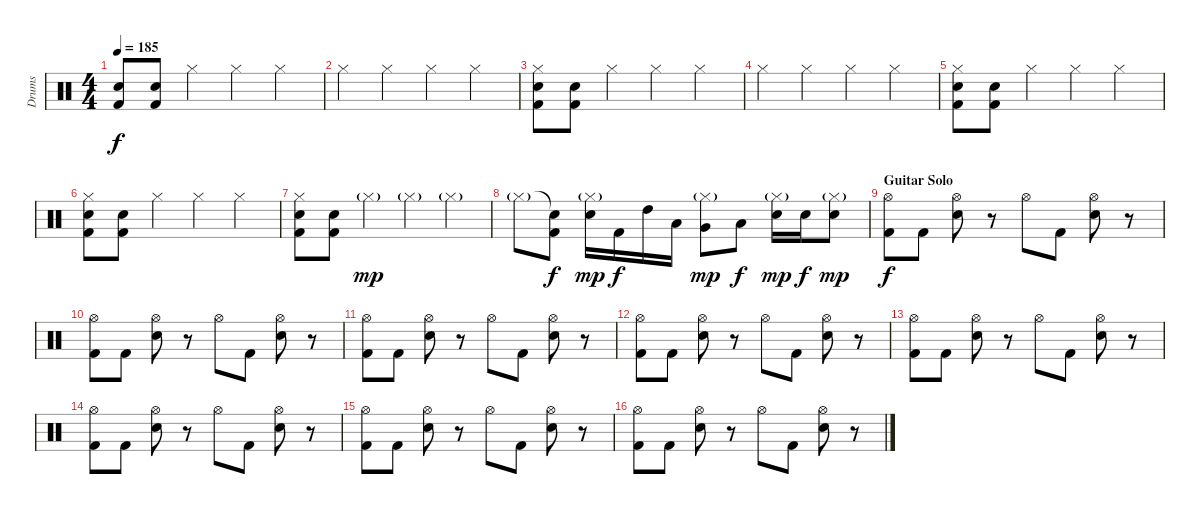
\track ("Drums" "Drums") {instrument percussion}
\staff {score}
\articulation defaults
\ts (4 4)
\tempo 185
\clef neutral
\ks c
("Kick (hit) 2" "Electric Snare (hit)").8{dy f} ("Kick (hit) 2" "Electric Snare (hit)").8 "Hi-Hat (closed)".4 "Hi-Hat (closed)".4 "Hi-Hat (closed)".4 |
"Hi-Hat (closed)".4 "Hi-Hat (closed)".4 "Hi-Hat (closed)".4 "Hi-Hat (closed)".4 |
("Hi-Hat (closed)" "Kick (hit) 2" "Electric Snare (hit)").8 ("Kick (hit) 2" "Electric Snare (hit)").8 "Hi-Hat (closed)".4 "Hi-Hat (closed)".4 "Hi-Hat (closed)".4 |
"Hi-Hat (closed)".4 "Hi-Hat (closed)".4 "Hi-Hat (closed)".4 "Hi-Hat (closed)".4 |
("Hi-Hat (closed)" "Kick (hit) 2" "Electric Snare (hit)").8 ("Kick (hit) 2" "Electric Snare (hit)").8 "Hi-Hat (closed)".4 "Hi-Hat (closed)".4 "Hi-Hat (closed)".4 |
("Hi-Hat (closed)" "Kick (hit) 2" "Electric Snare (hit)").8 ("Kick (hit) 2" "Electric Snare (hit)").8 "Hi-Hat (closed)".4 "Hi-Hat (closed)".4 "Hi-Hat (closed)".4 |
("Hi-Hat (closed)" "Kick (hit) 2" "Electric Snare (hit)").8 ("Kick (hit) 2" "Electric Snare (hit)").8 "Hi-Hat (closed)"{g}.4{dy mp} "Hi-Hat (closed)"{g}.4 "Hi-Hat (closed)"{g}.4 |
"Hi-Hat (closed)"{g}.8 ("Snare (hit)"{t} "Kick (hit) 2").8{dy f} ("Hi-Hat (closed)"{g} "Electric Snare (hit)").16{dy mp} "Kick (hit) 2".16{dy f} "High Tom (hit)".16 "Low Tom (hit)".16 ("Hi-Hat (closed)"{g} "Very Low Tom (hit)").8{dy mp} "Low Floor Tom (hit)".8{dy f} ("Hi-Hat (closed)"{g} "Electric Snare (hit)").16{dy mp} "Electric Snare (hit)".16{dy f} ("Hi-Hat (closed)"{g} "Electric Snare (hit)").8{dy mp} |
\section ("" "Guitar Solo")
("Hi-Hat (open)" "Kick (hit) 2").8{dy f} "Kick (hit) 2".8 ("Hi-Hat (open)" "Electric Snare (hit)").8 r.8 "Hi-Hat (open)".8 "Kick (hit) 2".8 ("Hi-Hat (open)" "Electric Snare (hit)").8 r.8 |
("Hi-Hat (open)" "Kick (hit) 2").8 "Kick (hit) 2".8 ("Hi-Hat (open)" "Electric Snare (hit)").8 r.8 "Hi-Hat (open)".8 "Kick (hit) 2".8 ("Hi-Hat (open)" "Electric Snare (hit)").8 r.8 |
("Hi-Hat (open)" "Kick (hit) 2").8 "Kick (hit) 2".8 ("Hi-Hat (open)" "Electric Snare (hit)").8 r.8 "Hi-Hat (open)".8 "Kick (hit) 2".8 ("Hi-Hat (open)" "Electric Snare (hit)").8 r.8 |
("Hi-Hat (open)" "Kick (hit) 2").8 "Kick (hit) 2".8 ("Hi-Hat (open)" "Electric Snare (hit)").8 r.8 "Hi-Hat (open)".8 "Kick (hit) 2".8 ("Hi-Hat (open)" "Electric Snare (hit)").8 r.8 |
("Hi-Hat (open)" "Kick (hit) 2").8 "Kick (hit) 2".8 ("Hi-Hat (open)" "Electric Snare (hit)").8 r.8 "Hi-Hat (open)".8 "Kick (hit) 2".8 ("Hi-Hat (open)" "Electric Snare (hit)").8 r.8 |
("Hi-Hat (open)" "Kick (hit) 2").8 "Kick (hit) 2".8 ("Hi-Hat (open)" "Electric Snare (hit)").8 r.8 "Hi-Hat (open)".8 "Kick (hit) 2".8 ("Hi-Hat (open)" "Electric Snare (hit)").8 r.8 |
("Hi-Hat (open)" "Kick (hit) 2").8 "Kick (hit) 2".8 ("Hi-Hat (open)" "Electric Snare (hit)").8 r.8 "Hi-Hat (open)".8 "Kick (hit) 2".8 ("Hi-Hat (open)" "Electric Snare (hit)").8 r.8 |
("Hi-Hat (open)" "Kick (hit) 2").8 "Kick (hit) 2".8 ("Hi-Hat (open)" "Electric Snare (hit)").8 r.8 "Hi-Hat (open)".8 "Kick (hit) 2".8 ("Hi-Hat (open)" "Electric Snare (hit)").8 r.8
